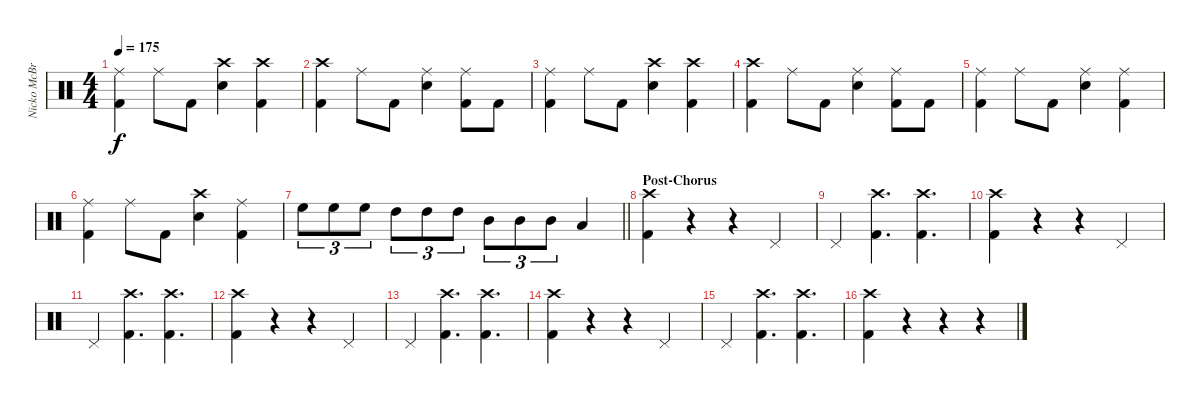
\track ("Nicko McBrian" "Nicko McBr") {instrument percussion}
\staff {score}
\articulation defaults
\ts (4 4)
\tempo 175
\clef neutral
\ks c
("Ride (middle)" "Kick (hit) 2").4{dy f} "Ride (middle)".8 "Kick (hit) 2".8 ("Crash high (hit)" "Electric Snare (hit)").4 ("Crash high (hit)" "Kick (hit) 2").4 |
("Crash high (hit)" "Kick (hit) 2").4 "Ride (middle)".8 "Kick (hit) 2".8 ("Ride (middle)" "Electric Snare (hit)").4 ("Ride (middle)" "Kick (hit) 2").8 "Kick (hit) 2".8 |
("Ride (middle)" "Kick (hit) 2").4 "Ride (middle)".8 "Kick (hit) 2".8 ("Crash high (hit)" "Electric Snare (hit)").4 ("Crash high (hit)" "Kick (hit) 2").4 |
("Crash high (hit)" "Kick (hit) 2").4 "Ride (middle)".8 "Kick (hit) 2".8 ("Ride (middle)" "Electric Snare (hit)").4 ("Ride (middle)" "Kick (hit) 2").8 "Kick (hit) 2".8 |
("Ride (middle)" "Kick (hit) 2").4 "Ride (middle)".8 "Kick (hit) 2".8 ("Ride (middle)" "Electric Snare (hit)").4 ("Ride (middle)" "Kick (hit) 2").4 |
("Ride (middle)" "Kick (hit) 2").4 "Ride (middle)".8 "Kick (hit) 2".8 ("Crash high (hit)" "Electric Snare (hit)").4 ("Ride (middle)" "Kick (hit) 2").4 |
\barLineRight lightlight "High Floor Tom (hit)".8{tu (3 2)} "High Floor Tom (hit)".8{tu (3 2)} "High Floor Tom (hit)".8{tu (3 2)} "High Tom (hit)".8{tu (3 2)} "High Tom (hit)".8{tu (3 2)} "High Tom (hit)".8{tu (3 2)} "Mid Tom (hit)".8{tu (3 2)} "Mid Tom (hit)".8{tu (3 2)} "Mid Tom (hit)".8{tu (3 2)} "Low Tom (hit)".4
|
\section ("" "Post-Chorus")
("Crash high (hit)" "Kick (hit) 2").4 r.4 r.4 "Pedal Hi-Hat (hit)".4 |
"Pedal Hi-Hat (hit)".4 ("Crash high (hit)" "Kick (hit) 2").4{d} ("Crash high (hit)" "Kick (hit) 2").4{d} |
("Crash high (hit)" "Kick (hit) 2").4 r.4 r.4 "Pedal Hi-Hat (hit)".4 |
"Pedal Hi-Hat (hit)".4 ("Crash high (hit)" "Kick (hit) 2").4{d} ("Crash high (hit)" "Kick (hit) 2").4{d} |
("Crash high (hit)" "Kick (hit) 2").4 r.4 r.4 "Pedal Hi-Hat (hit)".4 |
"Pedal Hi-Hat (hit)".4 ("Crash high (hit)" "Kick (hit) 2").4{d} ("Crash high (hit)" "Kick (hit) 2").4{d} |
("Crash high (hit)" "Kick (hit) 2").4 r.4 r.4 "Pedal Hi-Hat (hit)".4 |
"Pedal Hi-Hat (hit)".4 ("Crash high (hit)" "Kick (hit) 2").4{d} ("Crash high (hit)" "Kick (hit) 2").4{d} |
("Crash high (hit)" "Kick (hit) 2").4 r.4 r.4 r.4
